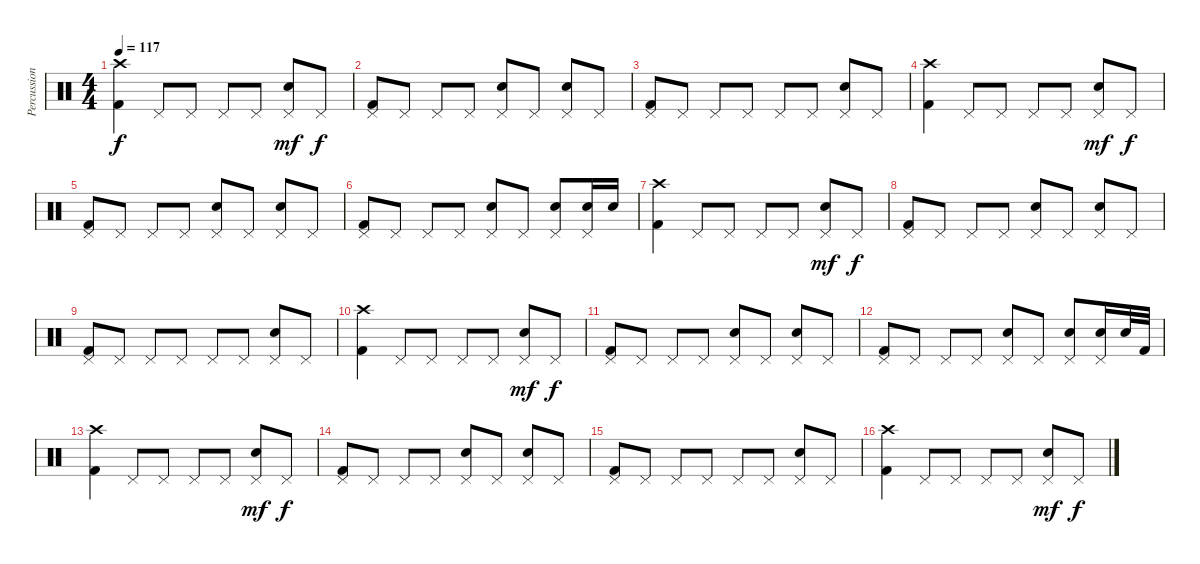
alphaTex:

\track ("Percussions" "Percussion") {instrument percussion}
\staff {score}
\articulation defaults
\ts (4 4)
\tempo 117
\clef neutral
\ks c
("Crash high (hit)" "Kick (hit) 2").4{dy f} "Pedal Hi-Hat (hit)".8 "Pedal Hi-Hat (hit)".8 "Pedal Hi-Hat (hit)".8 "Pedal Hi-Hat (hit)".8 ("Pedal Hi-Hat (hit)" "Electric Snare (hit)").8{dy mf} "Pedal Hi-Hat (hit)".8{dy f} |
("Pedal Hi-Hat (hit)" "Kick (hit) 2").8 "Pedal Hi-Hat (hit)".8 "Pedal Hi-Hat (hit)".8 "Pedal Hi-Hat (hit)".8 ("Pedal Hi-Hat (hit)" "Electric Snare (hit)").8 "Pedal Hi-Hat (hit)".8 ("Pedal Hi-Hat (hit)" "Electric Snare (hit)").8 "Pedal Hi-Hat (hit)".8 |
("Pedal Hi-Hat (hit)" "Kick (hit) 2").8 "Pedal Hi-Hat (hit)".8 "Pedal Hi-Hat (hit)".8 "Pedal Hi-Hat (hit)".8 "Pedal Hi-Hat (hit)".8 "Pedal Hi-Hat (hit)".8 ("Pedal Hi-Hat (hit)" "Electric Snare (hit)").8 "Pedal Hi-Hat (hit)".8 |
("Crash high (hit)" "Kick (hit) 2").4 "Pedal Hi-Hat (hit)".8 "Pedal Hi-Hat (hit)".8 "Pedal Hi-Hat (hit)".8 "Pedal Hi-Hat (hit)".8 ("Pedal Hi-Hat (hit)" "Electric Snare (hit)").8{dy mf} "Pedal Hi-Hat (hit)".8{dy f} |
("Pedal Hi-Hat (hit)" "Kick (hit) 2").8 "Pedal Hi-Hat (hit)".8 "Pedal Hi-Hat (hit)".8 "Pedal Hi-Hat (hit)".8 ("Pedal Hi-Hat (hit)" "Electric Snare (hit)").8 "Pedal Hi-Hat (hit)".8 ("Pedal Hi-Hat (hit)" "Electric Snare (hit)").8 "Pedal Hi-Hat (hit)".8 |
("Pedal Hi-Hat (hit)" "Kick (hit) 2").8 "Pedal Hi-Hat (hit)".8 "Pedal Hi-Hat (hit)".8 "Pedal Hi-Hat (hit)".8 ("Pedal Hi-Hat (hit)" "Electric Snare (hit)").8 "Pedal Hi-Hat (hit)".8 ("Pedal Hi-Hat (hit)" "Electric Snare (hit)").8 ("Pedal Hi-Hat (hit)" "Electric Snare (hit)").16 "Snare (hit) 2".16 |
("Crash high (hit)" "Kick (hit) 2").4 "Pedal Hi-Hat (hit)".8 "Pedal Hi-Hat (hit)".8 "Pedal Hi-Hat (hit)".8 "Pedal Hi-Hat (hit)".8 ("Pedal Hi-Hat (hit)" "Electric Snare (hit)").8{dy mf} "Pedal Hi-Hat (hit)".8{dy f} |
("Pedal Hi-Hat (hit)" "Kick (hit) 2").8 "Pedal Hi-Hat (hit)".8 "Pedal Hi-Hat (hit)".8 "Pedal Hi-Hat (hit)".8 ("Pedal Hi-Hat (hit)" "Electric Snare (hit)").8 "Pedal Hi-Hat (hit)".8 ("Pedal Hi-Hat (hit)" "Electric Snare (hit)").8 "Pedal Hi-Hat (hit)".8 |
("Pedal Hi-Hat (hit)" "Kick (hit) 2").8 "Pedal Hi-Hat (hit)".8 "Pedal Hi-Hat (hit)".8 "Pedal Hi-Hat (hit)".8 "Pedal Hi-Hat (hit)".8 "Pedal Hi-Hat (hit)".8 ("Pedal Hi-Hat (hit)" "Electric Snare (hit)").8 "Pedal Hi-Hat (hit)".8 |
("Crash high (hit)" "Kick (hit) 2").4 "Pedal Hi-Hat (hit)".8 "Pedal Hi-Hat (hit)".8 "Pedal Hi-Hat (hit)".8 "Pedal Hi-Hat (hit)".8 ("Pedal Hi-Hat (hit)" "Electric Snare (hit)").8{dy mf} "Pedal Hi-Hat (hit)".8{dy f} |
("Pedal Hi-Hat (hit)" "Kick (hit) 2").8 "Pedal Hi-Hat (hit)".8 "Pedal Hi-Hat (hit)".8 "Pedal Hi-Hat (hit)".8 ("Pedal Hi-Hat (hit)" "Electric Snare (hit)").8 "Pedal Hi-Hat (hit)".8 ("Pedal Hi-Hat (hit)" "Electric Snare (hit)").8 "Pedal Hi-Hat (hit)".8 |
("Pedal Hi-Hat (hit)" "Kick (hit) 2").8 "Pedal Hi-Hat (hit)".8 "Pedal Hi-Hat (hit)".8 "Pedal Hi-Hat (hit)".8 ("Pedal Hi-Hat (hit)" "Electric Snare (hit)").8 "Pedal Hi-Hat (hit)".8 ("Pedal Hi-Hat (hit)" "Electric Snare (hit)").8 ("Pedal Hi-Hat (hit)" "Electric Snare (hit)").16 "Snare (hit) 2".32 "Kick (hit) 2".32 |
("Crash high (hit)" "Kick (hit) 2").4 "Pedal Hi-Hat (hit)".8 "Pedal Hi-Hat (hit)".8 "Pedal Hi-Hat (hit)".8 "Pedal Hi-Hat (hit)".8 ("Pedal Hi-Hat (hit)" "Electric Snare (hit)").8{dy mf} "Pedal Hi-Hat (hit)".8{dy f} |
("Pedal Hi-Hat (hit)" "Kick (hit) 2").8 "Pedal Hi-Hat (hit)".8 "Pedal Hi-Hat (hit)".8 "Pedal Hi-Hat (hit)".8 ("Pedal Hi-Hat (hit)" "Electric Snare (hit)").8 "Pedal Hi-Hat (hit)".8 ("Pedal Hi-Hat (hit)" "Electric Snare (hit)").8 "Pedal Hi-Hat (hit)".8 |
("Pedal Hi-Hat (hit)" "Kick (hit) 2").8 "Pedal Hi-Hat (hit)".8 "Pedal Hi-Hat (hit)".8 "Pedal Hi-Hat (hit)".8 "Pedal Hi-Hat (hit)".8 "Pedal Hi-Hat (hit)".8 ("Pedal Hi-Hat (hit)" "Electric Snare (hit)").8 "Pedal Hi-Hat (hit)".8 |
("Crash high (hit)" "Kick (hit) 2").4 "Pedal Hi-Hat (hit)".8 "Pedal Hi-Hat (hit)".8 "Pedal Hi-Hat (hit)".8 "Pedal Hi-Hat (hit)".8 ("Pedal Hi-Hat (hit)" "Electric Snare (hit)").8{dy mf} "Pedal Hi-Hat (hit)".8{dy f}
